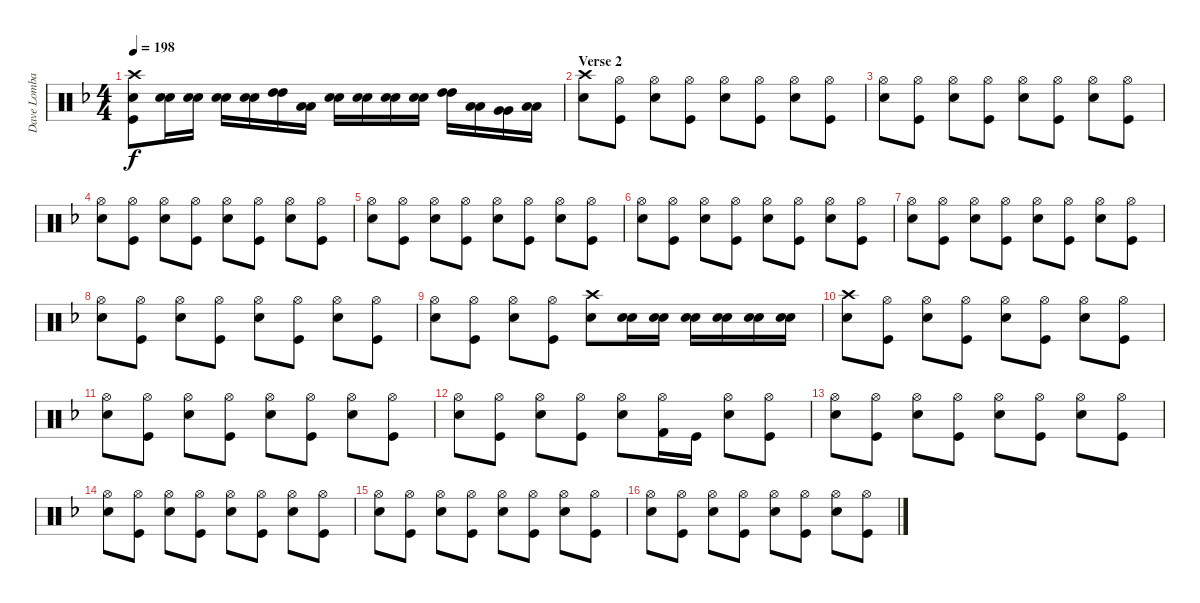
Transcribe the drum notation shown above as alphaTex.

\track ("Dave Lombardo - Drums" "Dave Lomba") {instrument percussion}
\staff {score}
\articulation defaults
\ts (4 4)
\tempo 198
\clef neutral
\ks f
("Crash high (hit)" "Snare (hit) 2" "Kick (hit)").8{dy f} ("Snare (hit) 2" "Snare (hit) 2").16 ("Snare (hit) 2" "Snare (hit) 2").16 ("Snare (hit) 2" "Snare (hit) 2").16 ("Snare (hit) 2" "Snare (hit) 2").16 ("High Tom (hit)" "High Tom (hit)").16 ("Low Tom (hit)" "Low Tom (hit)").16 ("Snare (hit) 2" "Snare (hit) 2").16 ("Snare (hit) 2" "Snare (hit) 2").16 ("Snare (hit) 2" "Snare (hit) 2").16 ("Snare (hit) 2" "Snare (hit) 2").16 ("High Tom (hit)" "High Tom (hit)").16 ("Low Tom (hit)" "Low Tom (hit)").16 ("Very Low Tom (hit)" "Very Low Tom (hit)").16 ("Low Floor Tom (hit)" "Low Floor Tom (hit)").16 |
\section ("" "Verse 2")
("Crash high (hit)" "Snare (hit) 2").8 ("Hi-Hat (open)" "Kick (hit)").8 ("Hi-Hat (open)" "Snare (hit) 2").8 ("Hi-Hat (open)" "Kick (hit)").8 ("Hi-Hat (open)" "Snare (hit) 2").8 ("Hi-Hat (open)" "Kick (hit)").8 ("Hi-Hat (open)" "Snare (hit) 2").8 ("Hi-Hat (open)" "Kick (hit)").8 |
("Hi-Hat (open)" "Snare (hit) 2").8 ("Hi-Hat (open)" "Kick (hit)").8 ("Hi-Hat (open)" "Snare (hit) 2").8 ("Hi-Hat (open)" "Kick (hit)").8 ("Hi-Hat (open)" "Snare (hit) 2").8 ("Hi-Hat (open)" "Kick (hit)").8 ("Hi-Hat (open)" "Snare (hit) 2").8 ("Hi-Hat (open)" "Kick (hit)").8 |
("Hi-Hat (open)" "Snare (hit) 2").8 ("Hi-Hat (open)" "Kick (hit)").8 ("Hi-Hat (open)" "Snare (hit) 2").8 ("Hi-Hat (open)" "Kick (hit)").8 ("Hi-Hat (open)" "Snare (hit) 2").8 ("Hi-Hat (open)" "Kick (hit)").8 ("Hi-Hat (open)" "Snare (hit) 2").8 ("Hi-Hat (open)" "Kick (hit)").8 |
("Hi-Hat (open)" "Snare (hit) 2").8 ("Hi-Hat (open)" "Kick (hit)").8 ("Hi-Hat (open)" "Snare (hit) 2").8 ("Hi-Hat (open)" "Kick (hit)").8 ("Hi-Hat (open)" "Snare (hit) 2").8 ("Hi-Hat (open)" "Kick (hit)").8 ("Hi-Hat (open)" "Snare (hit) 2").8 ("Hi-Hat (open)" "Kick (hit)").8 |
("Hi-Hat (open)" "Snare (hit) 2").8 ("Hi-Hat (open)" "Kick (hit)").8 ("Hi-Hat (open)" "Snare (hit) 2").8 ("Hi-Hat (open)" "Kick (hit)").8 ("Hi-Hat (open)" "Snare (hit) 2").8 ("Hi-Hat (open)" "Kick (hit)").8 ("Hi-Hat (open)" "Snare (hit) 2").8 ("Hi-Hat (open)" "Kick (hit)").8 |
("Hi-Hat (open)" "Snare (hit) 2").8 ("Hi-Hat (open)" "Kick (hit)").8 ("Hi-Hat (open)" "Snare (hit) 2").8 ("Hi-Hat (open)" "Kick (hit)").8 ("Hi-Hat (open)" "Snare (hit) 2").8 ("Hi-Hat (open)" "Kick (hit)").8 ("Hi-Hat (open)" "Snare (hit) 2").8 ("Hi-Hat (open)" "Kick (hit)").8 |
("Hi-Hat (open)" "Snare (hit) 2").8 ("Hi-Hat (open)" "Kick (hit)").8 ("Hi-Hat (open)" "Snare (hit) 2").8 ("Hi-Hat (open)" "Kick (hit)").8 ("Hi-Hat (open)" "Snare (hit) 2").8 ("Hi-Hat (open)" "Kick (hit)").8 ("Hi-Hat (open)" "Snare (hit) 2").8 ("Hi-Hat (open)" "Kick (hit)").8 |
("Hi-Hat (open)" "Snare (hit) 2").8 ("Hi-Hat (open)" "Kick (hit)").8 ("Hi-Hat (open)" "Snare (hit) 2").8 ("Hi-Hat (open)" "Kick (hit)").8 ("Crash high (hit)" "Snare (hit) 2").8 ("Snare (hit) 2" "Snare (hit) 2").16 ("Snare (hit) 2" "Snare (hit) 2").16 ("Snare (hit) 2" "Snare (hit) 2").16 ("Snare (hit) 2" "Snare (hit) 2").16 ("Snare (hit) 2" "Snare (hit) 2").16 ("Snare (hit) 2" "Snare (hit) 2").16 |
("Crash high (hit)" "Snare (hit) 2").8 ("Hi-Hat (open)" "Kick (hit)").8 ("Hi-Hat (open)" "Snare (hit) 2").8 ("Hi-Hat (open)" "Kick (hit)").8 ("Hi-Hat (open)" "Snare (hit) 2").8 ("Hi-Hat (open)" "Kick (hit)").8 ("Hi-Hat (open)" "Snare (hit) 2").8 ("Hi-Hat (open)" "Kick (hit)").8 |
("Hi-Hat (open)" "Snare (hit) 2").8 ("Hi-Hat (open)" "Kick (hit)").8 ("Hi-Hat (open)" "Snare (hit) 2").8 ("Hi-Hat (open)" "Kick (hit)").8 ("Hi-Hat (open)" "Snare (hit) 2").8 ("Hi-Hat (open)" "Kick (hit)").8 ("Hi-Hat (open)" "Snare (hit) 2").8 ("Hi-Hat (open)" "Kick (hit)").8 |
("Hi-Hat (open)" "Snare (hit) 2").8 ("Hi-Hat (open)" "Kick (hit)").8 ("Hi-Hat (open)" "Snare (hit) 2").8 ("Hi-Hat (open)" "Kick (hit)").8 ("Hi-Hat (open)" "Snare (hit) 2").8 ("Hi-Hat (open)" "Kick (hit) 2").16 "Kick (hit)".16 ("Hi-Hat (open)" "Snare (hit) 2").8 ("Hi-Hat (open)" "Kick (hit)").8 |
("Hi-Hat (open)" "Snare (hit) 2").8 ("Hi-Hat (open)" "Kick (hit)").8 ("Hi-Hat (open)" "Snare (hit) 2").8 ("Hi-Hat (open)" "Kick (hit)").8 ("Hi-Hat (open)" "Snare (hit) 2").8 ("Hi-Hat (open)" "Kick (hit)").8 ("Hi-Hat (open)" "Snare (hit) 2").8 ("Hi-Hat (open)" "Kick (hit)").8 |
("Hi-Hat (open)" "Snare (hit) 2").8 ("Hi-Hat (open)" "Kick (hit)").8 ("Hi-Hat (open)" "Snare (hit) 2").8 ("Hi-Hat (open)" "Kick (hit)").8 ("Hi-Hat (open)" "Snare (hit) 2").8 ("Hi-Hat (open)" "Kick (hit)").8 ("Hi-Hat (open)" "Snare (hit) 2").8 ("Hi-Hat (open)" "Kick (hit)").8 |
("Hi-Hat (open)" "Snare (hit) 2").8 ("Hi-Hat (open)" "Kick (hit)").8 ("Hi-Hat (open)" "Snare (hit) 2").8 ("Hi-Hat (open)" "Kick (hit)").8 ("Hi-Hat (open)" "Snare (hit) 2").8 ("Hi-Hat (open)" "Kick (hit)").8 ("Hi-Hat (open)" "Snare (hit) 2").8 ("Hi-Hat (open)" "Kick (hit)").8 |
("Hi-Hat (open)" "Snare (hit) 2").8 ("Hi-Hat (open)" "Kick (hit)").8 ("Hi-Hat (open)" "Snare (hit) 2").8 ("Hi-Hat (open)" "Kick (hit)").8 ("Hi-Hat (open)" "Snare (hit) 2").8 ("Hi-Hat (open)" "Kick (hit)").8 ("Hi-Hat (open)" "Snare (hit) 2").8 ("Hi-Hat (open)" "Kick (hit)").8
